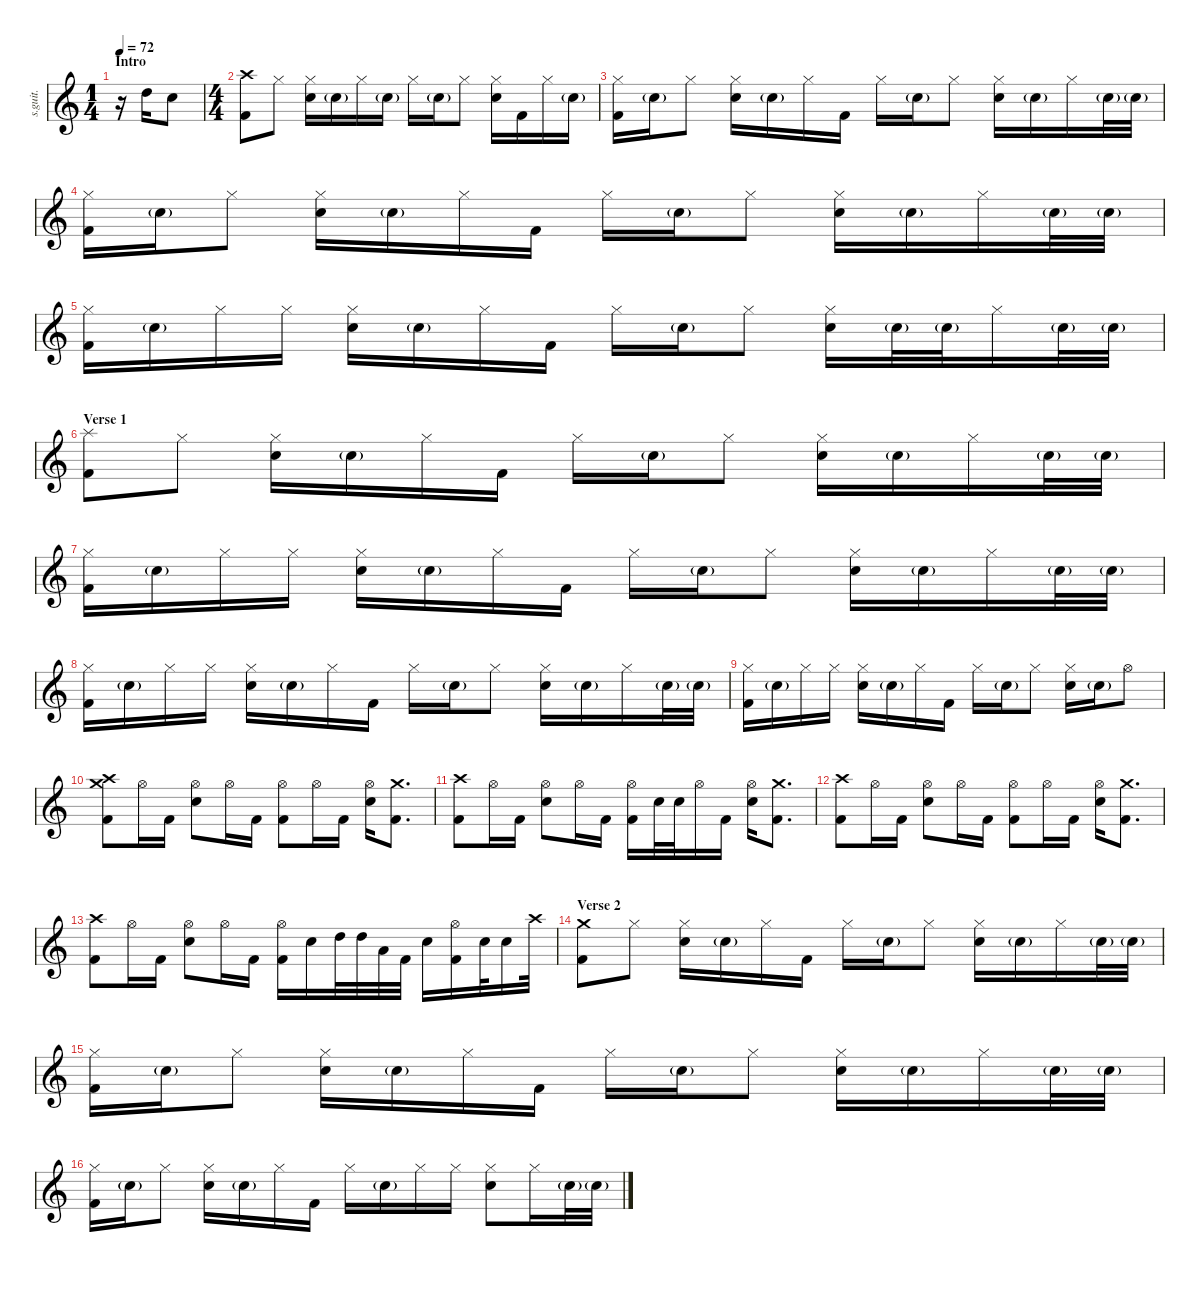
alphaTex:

\defaultSystemsLayout 4
\hideDynamics
\bracketExtendMode nobrackets
\track ("Abe Cunningham" "s.guit.") {instrument percussion}
\staff {score}
\articulation defaults
\ts (1 4)
\beaming (8 2 2 2 2)
\section ("" "Intro")
\tempo 72
\clef g2
\ks c
r.16{dy fff} "High Tom (hit)".16{lyrics (0 "") lyrics (1 "") lyrics (2 "") lyrics (3 "") lyrics (4 "")} "Snare (hit) 2".8{lyrics (0 "") lyrics (1 "") lyrics (2 "") lyrics (3 "") lyrics (4 "")} |
\ts (4 4)
\beaming (8 2 2 2 2)
("Kick (hit) 2" "Crash high (hit)").8{lyrics (0 "") lyrics (1 "") lyrics (2 "") lyrics (3 "") lyrics (4 "")} "Hi-Hat (closed)".8{lyrics (0 "") lyrics (1 "") lyrics (2 "") lyrics (3 "") lyrics (4 "")} ("Hi-Hat (closed)" "Snare (hit) 2").16{lyrics (0 "") lyrics (1 "") lyrics (2 "") lyrics (3 "") lyrics (4 "")} "Snare (hit) 2"{g}.16{lyrics (0 "") lyrics (1 "") lyrics (2 "") lyrics (3 "") lyrics (4 "")} "Hi-Hat (closed)".16{lyrics (0 "") lyrics (1 "") lyrics (2 "") lyrics (3 "") lyrics (4 "")} "Snare (hit) 2"{g}.16{lyrics (0 "") lyrics (1 "") lyrics (2 "") lyrics (3 "") lyrics (4 "")} "Hi-Hat (closed)".16{lyrics (0 "") lyrics (1 "") lyrics (2 "") lyrics (3 "") lyrics (4 "")} "Snare (hit) 2"{g}.16{lyrics (0 "") lyrics (1 "") lyrics (2 "") lyrics (3 "") lyrics (4 "")} "Hi-Hat (closed)".8{lyrics (0 "") lyrics (1 "") lyrics (2 "") lyrics (3 "") lyrics (4 "")} ("Hi-Hat (closed)" "Snare (hit) 2").16{lyrics (0 "") lyrics (1 "") lyrics (2 "") lyrics (3 "") lyrics (4 "")} "Kick (hit) 2".16{lyrics (0 "") lyrics (1 "") lyrics (2 "") lyrics (3 "") lyrics (4 "")} "Hi-Hat (closed)".16{lyrics (0 "") lyrics (1 "") lyrics (2 "") lyrics (3 "") lyrics (4 "")} "Snare (hit) 2"{g}.16{lyrics (0 "") lyrics (1 "") lyrics (2 "") lyrics (3 "") lyrics (4 "")} |
("Kick (hit) 2" "Hi-Hat (closed)").16{lyrics (0 "") lyrics (1 "") lyrics (2 "") lyrics (3 "") lyrics (4 "")} "Snare (hit) 2"{g}.16{lyrics (0 "") lyrics (1 "") lyrics (2 "") lyrics (3 "") lyrics (4 "")} "Hi-Hat (closed)".8{lyrics (0 "") lyrics (1 "") lyrics (2 "") lyrics (3 "") lyrics (4 "")} ("Hi-Hat (closed)" "Snare (hit) 2").16{lyrics (0 "") lyrics (1 "") lyrics (2 "") lyrics (3 "") lyrics (4 "")} "Snare (hit) 2"{g}.16{lyrics (0 "") lyrics (1 "") lyrics (2 "") lyrics (3 "") lyrics (4 "")} "Hi-Hat (closed)".16{lyrics (0 "") lyrics (1 "") lyrics (2 "") lyrics (3 "") lyrics (4 "")} "Kick (hit) 2".16{lyrics (0 "") lyrics (1 "") lyrics (2 "") lyrics (3 "") lyrics (4 "")} "Hi-Hat (closed)".16{lyrics (0 "") lyrics (1 "") lyrics (2 "") lyrics (3 "") lyrics (4 "")} "Snare (hit) 2"{g}.16{lyrics (0 "") lyrics (1 "") lyrics (2 "") lyrics (3 "") lyrics (4 "")} "Hi-Hat (closed)".8{lyrics (0 "") lyrics (1 "") lyrics (2 "") lyrics (3 "") lyrics (4 "")} ("Hi-Hat (closed)" "Snare (hit) 2").16{lyrics (0 "") lyrics (1 "") lyrics (2 "") lyrics (3 "") lyrics (4 "")} "Snare (hit) 2"{g}.16{lyrics (0 "") lyrics (1 "") lyrics (2 "") lyrics (3 "") lyrics (4 "")} "Hi-Hat (closed)".16{lyrics (0 "") lyrics (1 "") lyrics (2 "") lyrics (3 "") lyrics (4 "")} "Snare (hit) 2"{g}.32{lyrics (0 "") lyrics (1 "") lyrics (2 "") lyrics (3 "") lyrics (4 "")} "Snare (hit) 2"{g}.32{lyrics (0 "") lyrics (1 "") lyrics (2 "") lyrics (3 "") lyrics (4 "")} |
("Kick (hit) 2" "Hi-Hat (closed)").16{lyrics (0 "") lyrics (1 "") lyrics (2 "") lyrics (3 "") lyrics (4 "")} "Snare (hit) 2"{g}.16{lyrics (0 "") lyrics (1 "") lyrics (2 "") lyrics (3 "") lyrics (4 "")} "Hi-Hat (closed)".8{lyrics (0 "") lyrics (1 "") lyrics (2 "") lyrics (3 "") lyrics (4 "")} ("Hi-Hat (closed)" "Snare (hit) 2").16{lyrics (0 "") lyrics (1 "") lyrics (2 "") lyrics (3 "") lyrics (4 "")} "Snare (hit) 2"{g}.16{lyrics (0 "") lyrics (1 "") lyrics (2 "") lyrics (3 "") lyrics (4 "")} "Hi-Hat (closed)".16{lyrics (0 "") lyrics (1 "") lyrics (2 "") lyrics (3 "") lyrics (4 "")} "Kick (hit) 2".16{lyrics (0 "") lyrics (1 "") lyrics (2 "") lyrics (3 "") lyrics (4 "")} "Hi-Hat (closed)".16{lyrics (0 "") lyrics (1 "") lyrics (2 "") lyrics (3 "") lyrics (4 "")} "Snare (hit) 2"{g}.16{lyrics (0 "") lyrics (1 "") lyrics (2 "") lyrics (3 "") lyrics (4 "")} "Hi-Hat (closed)".8{lyrics (0 "") lyrics (1 "") lyrics (2 "") lyrics (3 "") lyrics (4 "")} ("Hi-Hat (closed)" "Snare (hit) 2").16{lyrics (0 "") lyrics (1 "") lyrics (2 "") lyrics (3 "") lyrics (4 "")} "Snare (hit) 2"{g}.16{lyrics (0 "") lyrics (1 "") lyrics (2 "") lyrics (3 "") lyrics (4 "")} "Hi-Hat (closed)".16{lyrics (0 "") lyrics (1 "") lyrics (2 "") lyrics (3 "") lyrics (4 "")} "Snare (hit) 2"{g}.32{lyrics (0 "") lyrics (1 "") lyrics (2 "") lyrics (3 "") lyrics (4 "")} "Snare (hit) 2"{g}.32{lyrics (0 "") lyrics (1 "") lyrics (2 "") lyrics (3 "") lyrics (4 "")} |
("Kick (hit) 2" "Hi-Hat (closed)").16{lyrics (0 "") lyrics (1 "") lyrics (2 "") lyrics (3 "") lyrics (4 "")} "Snare (hit) 2"{g}.16{lyrics (0 "") lyrics (1 "") lyrics (2 "") lyrics (3 "") lyrics (4 "")} "Hi-Hat (closed)".16{lyrics (0 "") lyrics (1 "") lyrics (2 "") lyrics (3 "") lyrics (4 "")} "Hi-Hat (closed)".16{lyrics (0 "") lyrics (1 "") lyrics (2 "") lyrics (3 "") lyrics (4 "")} ("Hi-Hat (closed)" "Snare (hit) 2").16{lyrics (0 "") lyrics (1 "") lyrics (2 "") lyrics (3 "") lyrics (4 "")} "Snare (hit) 2"{g}.16{lyrics (0 "") lyrics (1 "") lyrics (2 "") lyrics (3 "") lyrics (4 "")} "Hi-Hat (closed)".16{lyrics (0 "") lyrics (1 "") lyrics (2 "") lyrics (3 "") lyrics (4 "")} "Kick (hit) 2".16{lyrics (0 "") lyrics (1 "") lyrics (2 "") lyrics (3 "") lyrics (4 "")} "Hi-Hat (closed)".16{lyrics (0 "") lyrics (1 "") lyrics (2 "") lyrics (3 "") lyrics (4 "")} "Snare (hit) 2"{g}.16{lyrics (0 "") lyrics (1 "") lyrics (2 "") lyrics (3 "") lyrics (4 "")} "Hi-Hat (closed)".8{lyrics (0 "") lyrics (1 "") lyrics (2 "") lyrics (3 "") lyrics (4 "")} ("Hi-Hat (closed)" "Snare (hit) 2").16{lyrics (0 "") lyrics (1 "") lyrics (2 "") lyrics (3 "") lyrics (4 "")} "Snare (hit) 2"{g}.32{lyrics (0 "") lyrics (1 "") lyrics (2 "") lyrics (3 "") lyrics (4 "")} "Snare (hit) 2"{g}.32{lyrics (0 "") lyrics (1 "") lyrics (2 "") lyrics (3 "") lyrics (4 "")} "Hi-Hat (closed)".16{lyrics (0 "") lyrics (1 "") lyrics (2 "") lyrics (3 "") lyrics (4 "")} "Snare (hit) 2"{g}.32{lyrics (0 "") lyrics (1 "") lyrics (2 "") lyrics (3 "") lyrics (4 "")} "Snare (hit) 2"{g}.32{lyrics (0 "") lyrics (1 "") lyrics (2 "") lyrics (3 "") lyrics (4 "")} |
\section ("" "Verse 1")
("Kick (hit) 2" "Splash (hit)").8{lyrics (0 "") lyrics (1 "") lyrics (2 "") lyrics (3 "") lyrics (4 "")} "Hi-Hat (closed)".8{lyrics (0 "") lyrics (1 "") lyrics (2 "") lyrics (3 "") lyrics (4 "")} ("Hi-Hat (closed)" "Snare (hit) 2").16{lyrics (0 "") lyrics (1 "") lyrics (2 "") lyrics (3 "") lyrics (4 "")} "Snare (hit) 2"{g}.16{lyrics (0 "") lyrics (1 "") lyrics (2 "") lyrics (3 "") lyrics (4 "")} "Hi-Hat (closed)".16{lyrics (0 "") lyrics (1 "") lyrics (2 "") lyrics (3 "") lyrics (4 "")} "Kick (hit) 2".16{lyrics (0 "") lyrics (1 "") lyrics (2 "") lyrics (3 "") lyrics (4 "")} "Hi-Hat (closed)".16{lyrics (0 "") lyrics (1 "") lyrics (2 "") lyrics (3 "") lyrics (4 "")} "Snare (hit) 2"{g}.16{lyrics (0 "") lyrics (1 "") lyrics (2 "") lyrics (3 "") lyrics (4 "")} "Hi-Hat (closed)".8{lyrics (0 "") lyrics (1 "") lyrics (2 "") lyrics (3 "") lyrics (4 "")} ("Hi-Hat (closed)" "Snare (hit) 2").16{lyrics (0 "") lyrics (1 "") lyrics (2 "") lyrics (3 "") lyrics (4 "")} "Snare (hit) 2"{g}.16{lyrics (0 "") lyrics (1 "") lyrics (2 "") lyrics (3 "") lyrics (4 "")} "Hi-Hat (closed)".16{lyrics (0 "") lyrics (1 "") lyrics (2 "") lyrics (3 "") lyrics (4 "")} "Snare (hit) 2"{g}.32{lyrics (0 "") lyrics (1 "") lyrics (2 "") lyrics (3 "") lyrics (4 "")} "Snare (hit) 2"{g}.32{lyrics (0 "") lyrics (1 "") lyrics (2 "") lyrics (3 "") lyrics (4 "")} |
("Kick (hit) 2" "Hi-Hat (closed)").16{lyrics (0 "") lyrics (1 "") lyrics (2 "") lyrics (3 "") lyrics (4 "")} "Snare (hit) 2"{g}.16{lyrics (0 "") lyrics (1 "") lyrics (2 "") lyrics (3 "") lyrics (4 "")} "Hi-Hat (closed)".16{lyrics (0 "") lyrics (1 "") lyrics (2 "") lyrics (3 "") lyrics (4 "")} "Hi-Hat (closed)".16{lyrics (0 "") lyrics (1 "") lyrics (2 "") lyrics (3 "") lyrics (4 "")} ("Hi-Hat (closed)" "Snare (hit) 2").16{lyrics (0 "") lyrics (1 "") lyrics (2 "") lyrics (3 "") lyrics (4 "")} "Snare (hit) 2"{g}.16{lyrics (0 "") lyrics (1 "") lyrics (2 "") lyrics (3 "") lyrics (4 "")} "Hi-Hat (closed)".16{lyrics (0 "") lyrics (1 "") lyrics (2 "") lyrics (3 "") lyrics (4 "")} "Kick (hit) 2".16{lyrics (0 "") lyrics (1 "") lyrics (2 "") lyrics (3 "") lyrics (4 "")} "Hi-Hat (closed)".16{lyrics (0 "") lyrics (1 "") lyrics (2 "") lyrics (3 "") lyrics (4 "")} "Snare (hit) 2"{g}.16{lyrics (0 "") lyrics (1 "") lyrics (2 "") lyrics (3 "") lyrics (4 "")} "Hi-Hat (closed)".8{lyrics (0 "") lyrics (1 "") lyrics (2 "") lyrics (3 "") lyrics (4 "")} ("Hi-Hat (closed)" "Snare (hit) 2").16{lyrics (0 "") lyrics (1 "") lyrics (2 "") lyrics (3 "") lyrics (4 "")} "Snare (hit) 2"{g}.16{lyrics (0 "") lyrics (1 "") lyrics (2 "") lyrics (3 "") lyrics (4 "")} "Hi-Hat (closed)".16{lyrics (0 "") lyrics (1 "") lyrics (2 "") lyrics (3 "") lyrics (4 "")} "Snare (hit) 2"{g}.32{lyrics (0 "") lyrics (1 "") lyrics (2 "") lyrics (3 "") lyrics (4 "")} "Snare (hit) 2"{g}.32{lyrics (0 "") lyrics (1 "") lyrics (2 "") lyrics (3 "") lyrics (4 "")} |
("Kick (hit) 2" "Hi-Hat (closed)").16{lyrics (0 "") lyrics (1 "") lyrics (2 "") lyrics (3 "") lyrics (4 "")} "Snare (hit) 2"{g}.16{lyrics (0 "") lyrics (1 "") lyrics (2 "") lyrics (3 "") lyrics (4 "")} "Hi-Hat (closed)".16{lyrics (0 "") lyrics (1 "") lyrics (2 "") lyrics (3 "") lyrics (4 "")} "Hi-Hat (closed)".16{lyrics (0 "") lyrics (1 "") lyrics (2 "") lyrics (3 "") lyrics (4 "")} ("Hi-Hat (closed)" "Snare (hit) 2").16{lyrics (0 "") lyrics (1 "") lyrics (2 "") lyrics (3 "") lyrics (4 "")} "Snare (hit) 2"{g}.16{lyrics (0 "") lyrics (1 "") lyrics (2 "") lyrics (3 "") lyrics (4 "")} "Hi-Hat (closed)".16{lyrics (0 "") lyrics (1 "") lyrics (2 "") lyrics (3 "") lyrics (4 "")} "Kick (hit) 2".16{lyrics (0 "") lyrics (1 "") lyrics (2 "") lyrics (3 "") lyrics (4 "")} "Hi-Hat (closed)".16{lyrics (0 "") lyrics (1 "") lyrics (2 "") lyrics (3 "") lyrics (4 "")} "Snare (hit) 2"{g}.16{lyrics (0 "") lyrics (1 "") lyrics (2 "") lyrics (3 "") lyrics (4 "")} "Hi-Hat (closed)".8{lyrics (0 "") lyrics (1 "") lyrics (2 "") lyrics (3 "") lyrics (4 "")} ("Hi-Hat (closed)" "Snare (hit) 2").16{lyrics (0 "") lyrics (1 "") lyrics (2 "") lyrics (3 "") lyrics (4 "")} "Snare (hit) 2"{g}.16{lyrics (0 "") lyrics (1 "") lyrics (2 "") lyrics (3 "") lyrics (4 "")} "Hi-Hat (closed)".16{lyrics (0 "") lyrics (1 "") lyrics (2 "") lyrics (3 "") lyrics (4 "")} "Snare (hit) 2"{g}.32{lyrics (0 "") lyrics (1 "") lyrics (2 "") lyrics (3 "") lyrics (4 "")} "Snare (hit) 2"{g}.32{lyrics (0 "") lyrics (1 "") lyrics (2 "") lyrics (3 "") lyrics (4 "")} |
("Kick (hit) 2" "Hi-Hat (closed)").16{lyrics (0 "") lyrics (1 "") lyrics (2 "") lyrics (3 "") lyrics (4 "")} "Snare (hit) 2"{g}.16{lyrics (0 "") lyrics (1 "") lyrics (2 "") lyrics (3 "") lyrics (4 "")} "Hi-Hat (closed)".16{lyrics (0 "") lyrics (1 "") lyrics (2 "") lyrics (3 "") lyrics (4 "")} "Hi-Hat (closed)".16{lyrics (0 "") lyrics (1 "") lyrics (2 "") lyrics (3 "") lyrics (4 "")} ("Hi-Hat (closed)" "Snare (hit) 2").16{lyrics (0 "") lyrics (1 "") lyrics (2 "") lyrics (3 "") lyrics (4 "")} "Snare (hit) 2"{g}.16{lyrics (0 "") lyrics (1 "") lyrics (2 "") lyrics (3 "") lyrics (4 "")} "Hi-Hat (closed)".16{lyrics (0 "") lyrics (1 "") lyrics (2 "") lyrics (3 "") lyrics (4 "")} "Kick (hit) 2".16{lyrics (0 "") lyrics (1 "") lyrics (2 "") lyrics (3 "") lyrics (4 "")} "Hi-Hat (closed)".16{lyrics (0 "") lyrics (1 "") lyrics (2 "") lyrics (3 "") lyrics (4 "")} "Snare (hit) 2"{g}.16{lyrics (0 "") lyrics (1 "") lyrics (2 "") lyrics (3 "") lyrics (4 "")} "Hi-Hat (closed)".8{lyrics (0 "") lyrics (1 "") lyrics (2 "") lyrics (3 "") lyrics (4 "")} ("Hi-Hat (closed)" "Snare (hit) 2").16{lyrics (0 "") lyrics (1 "") lyrics (2 "") lyrics (3 "") lyrics (4 "")} "Snare (hit) 2"{g}.16{lyrics (0 "") lyrics (1 "") lyrics (2 "") lyrics (3 "") lyrics (4 "")} "Hi-Hat (open)".8{lyrics (0 "") lyrics (1 "") lyrics (2 "") lyrics (3 "") lyrics (4 "")} |
("Crash high (hit)" "Kick (hit) 2" "Crash medium (hit)").8{lyrics (0 "") lyrics (1 "") lyrics (2 "") lyrics (3 "") lyrics (4 "")} "Hi-Hat (open)".16{lyrics (0 "") lyrics (1 "") lyrics (2 "") lyrics (3 "") lyrics (4 "")} "Kick (hit) 2".16{lyrics (0 "") lyrics (1 "") lyrics (2 "") lyrics (3 "") lyrics (4 "")} ("Hi-Hat (open)" "Snare (hit) 2").8{lyrics (0 "") lyrics (1 "") lyrics (2 "") lyrics (3 "") lyrics (4 "")} "Hi-Hat (open)".16{lyrics (0 "") lyrics (1 "") lyrics (2 "") lyrics (3 "") lyrics (4 "")} "Kick (hit) 2".16{lyrics (0 "") lyrics (1 "") lyrics (2 "") lyrics (3 "") lyrics (4 "")} ("Hi-Hat (open)" "Kick (hit) 2").8{lyrics (0 "") lyrics (1 "") lyrics (2 "") lyrics (3 "") lyrics (4 "")} "Hi-Hat (open)".16{lyrics (0 "") lyrics (1 "") lyrics (2 "") lyrics (3 "") lyrics (4 "")} "Kick (hit) 2".16{lyrics (0 "") lyrics (1 "") lyrics (2 "") lyrics (3 "") lyrics (4 "")} ("Hi-Hat (open)" "Snare (hit) 2").16{lyrics (0 "") lyrics (1 "") lyrics (2 "") lyrics (3 "") lyrics (4 "")} ("Kick (hit) 2" "Crash medium (hit)").8{d lyrics (0 "") lyrics (1 "") lyrics (2 "") lyrics (3 "") lyrics (4 "")} |
("Kick (hit) 2" "Crash high (hit)").8{lyrics (0 "") lyrics (1 "") lyrics (2 "") lyrics (3 "") lyrics (4 "")} "Hi-Hat (open)".16{lyrics (0 "") lyrics (1 "") lyrics (2 "") lyrics (3 "") lyrics (4 "")} "Kick (hit) 2".16{lyrics (0 "") lyrics (1 "") lyrics (2 "") lyrics (3 "") lyrics (4 "")} ("Hi-Hat (open)" "Snare (hit) 2").8{lyrics (0 "") lyrics (1 "") lyrics (2 "") lyrics (3 "") lyrics (4 "")} "Hi-Hat (open)".16{lyrics (0 "") lyrics (1 "") lyrics (2 "") lyrics (3 "") lyrics (4 "")} "Kick (hit) 2".16{lyrics (0 "") lyrics (1 "") lyrics (2 "") lyrics (3 "") lyrics (4 "")} ("Hi-Hat (open)" "Kick (hit) 2").16{lyrics (0 "") lyrics (1 "") lyrics (2 "") lyrics (3 "") lyrics (4 "")} "Snare (hit) 2".32{lyrics (0 "") lyrics (1 "") lyrics (2 "") lyrics (3 "") lyrics (4 "")} "Snare (hit) 2".32{lyrics (0 "") lyrics (1 "") lyrics (2 "") lyrics (3 "") lyrics (4 "")} "Hi-Hat (open)".16{lyrics (0 "") lyrics (1 "") lyrics (2 "") lyrics (3 "") lyrics (4 "")} "Kick (hit) 2".16{lyrics (0 "") lyrics (1 "") lyrics (2 "") lyrics (3 "") lyrics (4 "")} ("Hi-Hat (open)" "Snare (hit) 2").16{lyrics (0 "") lyrics (1 "") lyrics (2 "") lyrics (3 "") lyrics (4 "")} ("Kick (hit) 2" "Crash medium (hit)").8{d lyrics (0 "") lyrics (1 "") lyrics (2 "") lyrics (3 "") lyrics (4 "")} |
("Kick (hit) 2" "Crash high (hit)").8{lyrics (0 "") lyrics (1 "") lyrics (2 "") lyrics (3 "") lyrics (4 "")} "Hi-Hat (open)".16{lyrics (0 "") lyrics (1 "") lyrics (2 "") lyrics (3 "") lyrics (4 "")} "Kick (hit) 2".16{lyrics (0 "") lyrics (1 "") lyrics (2 "") lyrics (3 "") lyrics (4 "")} ("Hi-Hat (open)" "Snare (hit) 2").8{lyrics (0 "") lyrics (1 "") lyrics (2 "") lyrics (3 "") lyrics (4 "")} "Hi-Hat (open)".16{lyrics (0 "") lyrics (1 "") lyrics (2 "") lyrics (3 "") lyrics (4 "")} "Kick (hit) 2".16{lyrics (0 "") lyrics (1 "") lyrics (2 "") lyrics (3 "") lyrics (4 "")} ("Hi-Hat (open)" "Kick (hit) 2").8{lyrics (0 "") lyrics (1 "") lyrics (2 "") lyrics (3 "") lyrics (4 "")} "Hi-Hat (open)".16{lyrics (0 "") lyrics (1 "") lyrics (2 "") lyrics (3 "") lyrics (4 "")} "Kick (hit) 2".16{lyrics (0 "") lyrics (1 "") lyrics (2 "") lyrics (3 "") lyrics (4 "")} ("Hi-Hat (open)" "Snare (hit) 2").16{lyrics (0 "") lyrics (1 "") lyrics (2 "") lyrics (3 "") lyrics (4 "")} ("Kick (hit) 2" "Crash medium (hit)").8{d lyrics (0 "") lyrics (1 "") lyrics (2 "") lyrics (3 "") lyrics (4 "")} |
("Kick (hit) 2" "Crash high (hit)").8{lyrics (0 "") lyrics (1 "") lyrics (2 "") lyrics (3 "") lyrics (4 "")} "Hi-Hat (open)".16{lyrics (0 "") lyrics (1 "") lyrics (2 "") lyrics (3 "") lyrics (4 "")} "Kick (hit) 2".16{lyrics (0 "") lyrics (1 "") lyrics (2 "") lyrics (3 "") lyrics (4 "")} ("Hi-Hat (open)" "Snare (hit) 2").8{lyrics (0 "") lyrics (1 "") lyrics (2 "") lyrics (3 "") lyrics (4 "")} "Hi-Hat (open)".16{lyrics (0 "") lyrics (1 "") lyrics (2 "") lyrics (3 "") lyrics (4 "")} "Kick (hit) 2".16{lyrics (0 "") lyrics (1 "") lyrics (2 "") lyrics (3 "") lyrics (4 "")} ("Hi-Hat (open)" "Kick (hit) 2").16{lyrics (0 "") lyrics (1 "") lyrics (2 "") lyrics (3 "") lyrics (4 "")} "Snare (hit) 2".16{lyrics (0 "") lyrics (1 "") lyrics (2 "") lyrics (3 "") lyrics (4 "")} "High Tom (hit)".32{lyrics (0 "") lyrics (1 "") lyrics (2 "") lyrics (3 "") lyrics (4 "")} "High Tom (hit)".32{lyrics (0 "") lyrics (1 "") lyrics (2 "") lyrics (3 "") lyrics (4 "")} "Low Floor Tom (hit)".32{lyrics (0 "") lyrics (1 "") lyrics (2 "") lyrics (3 "") lyrics (4 "")} "Kick (hit) 2".32{lyrics (0 "") lyrics (1 "") lyrics (2 "") lyrics (3 "") lyrics (4 "")} "Snare (hit) 2".16{lyrics (0 "") lyrics (1 "") lyrics (2 "") lyrics (3 "") lyrics (4 "")} ("Kick (hit) 2" "Hi-Hat (open)").16{lyrics (0 "") lyrics (1 "") lyrics (2 "") lyrics (3 "") lyrics (4 "")} "Snare (hit) 2".32{lyrics (0 "") lyrics (1 "") lyrics (2 "") lyrics (3 "") lyrics (4 "")} "Snare (hit) 2".16{lyrics (0 "") lyrics (1 "") lyrics (2 "") lyrics (3 "") lyrics (4 "")} "Crash high (hit)".32{lyrics (0 "") lyrics (1 "") lyrics (2 "") lyrics (3 "") lyrics (4 "")} |
\section ("" "Verse 2")
("Kick (hit) 2" "Crash medium (hit)").8{lyrics (0 "") lyrics (1 "") lyrics (2 "") lyrics (3 "") lyrics (4 "")} "Hi-Hat (closed)".8{lyrics (0 "") lyrics (1 "") lyrics (2 "") lyrics (3 "") lyrics (4 "")} ("Hi-Hat (closed)" "Snare (hit) 2").16{lyrics (0 "") lyrics (1 "") lyrics (2 "") lyrics (3 "") lyrics (4 "")} "Snare (hit) 2"{g}.16{lyrics (0 "") lyrics (1 "") lyrics (2 "") lyrics (3 "") lyrics (4 "")} "Hi-Hat (closed)".16{lyrics (0 "") lyrics (1 "") lyrics (2 "") lyrics (3 "") lyrics (4 "")} "Kick (hit) 2".16{lyrics (0 "") lyrics (1 "") lyrics (2 "") lyrics (3 "") lyrics (4 "")} "Hi-Hat (closed)".16{lyrics (0 "") lyrics (1 "") lyrics (2 "") lyrics (3 "") lyrics (4 "")} "Snare (hit) 2"{g}.16{lyrics (0 "") lyrics (1 "") lyrics (2 "") lyrics (3 "") lyrics (4 "")} "Hi-Hat (closed)".8{lyrics (0 "") lyrics (1 "") lyrics (2 "") lyrics (3 "") lyrics (4 "")} ("Hi-Hat (closed)" "Snare (hit) 2").16{lyrics (0 "") lyrics (1 "") lyrics (2 "") lyrics (3 "") lyrics (4 "")} "Snare (hit) 2"{g}.16{lyrics (0 "") lyrics (1 "") lyrics (2 "") lyrics (3 "") lyrics (4 "")} "Hi-Hat (closed)".16{lyrics (0 "") lyrics (1 "") lyrics (2 "") lyrics (3 "") lyrics (4 "")} "Snare (hit) 2"{g}.32{lyrics (0 "") lyrics (1 "") lyrics (2 "") lyrics (3 "") lyrics (4 "")} "Snare (hit) 2"{g}.32{lyrics (0 "") lyrics (1 "") lyrics (2 "") lyrics (3 "") lyrics (4 "")} |
("Kick (hit) 2" "Hi-Hat (closed)").16{lyrics (0 "") lyrics (1 "") lyrics (2 "") lyrics (3 "") lyrics (4 "")} "Snare (hit) 2"{g}.16{lyrics (0 "") lyrics (1 "") lyrics (2 "") lyrics (3 "") lyrics (4 "")} "Hi-Hat (closed)".8{lyrics (0 "") lyrics (1 "") lyrics (2 "") lyrics (3 "") lyrics (4 "")} ("Hi-Hat (closed)" "Snare (hit) 2").16{lyrics (0 "") lyrics (1 "") lyrics (2 "") lyrics (3 "") lyrics (4 "")} "Snare (hit) 2"{g}.16{lyrics (0 "") lyrics (1 "") lyrics (2 "") lyrics (3 "") lyrics (4 "")} "Hi-Hat (closed)".16{lyrics (0 "") lyrics (1 "") lyrics (2 "") lyrics (3 "") lyrics (4 "")} "Kick (hit) 2".16{lyrics (0 "") lyrics (1 "") lyrics (2 "") lyrics (3 "") lyrics (4 "")} "Hi-Hat (closed)".16{lyrics (0 "") lyrics (1 "") lyrics (2 "") lyrics (3 "") lyrics (4 "")} "Snare (hit) 2"{g}.16{lyrics (0 "") lyrics (1 "") lyrics (2 "") lyrics (3 "") lyrics (4 "")} "Hi-Hat (closed)".8{lyrics (0 "") lyrics (1 "") lyrics (2 "") lyrics (3 "") lyrics (4 "")} ("Hi-Hat (closed)" "Snare (hit) 2").16{lyrics (0 "") lyrics (1 "") lyrics (2 "") lyrics (3 "") lyrics (4 "")} "Snare (hit) 2"{g}.16{lyrics (0 "") lyrics (1 "") lyrics (2 "") lyrics (3 "") lyrics (4 "")} "Hi-Hat (closed)".16{lyrics (0 "") lyrics (1 "") lyrics (2 "") lyrics (3 "") lyrics (4 "")} "Snare (hit) 2"{g}.32{lyrics (0 "") lyrics (1 "") lyrics (2 "") lyrics (3 "") lyrics (4 "")} "Snare (hit) 2"{g}.32{lyrics (0 "") lyrics (1 "") lyrics (2 "") lyrics (3 "") lyrics (4 "")} |
("Kick (hit) 2" "Hi-Hat (closed)").16{lyrics (0 "") lyrics (1 "") lyrics (2 "") lyrics (3 "") lyrics (4 "")} "Snare (hit) 2"{g}.16{lyrics (0 "") lyrics (1 "") lyrics (2 "") lyrics (3 "") lyrics (4 "")} "Hi-Hat (closed)".8{lyrics (0 "") lyrics (1 "") lyrics (2 "") lyrics (3 "") lyrics (4 "")} ("Hi-Hat (closed)" "Snare (hit) 2").16{lyrics (0 "") lyrics (1 "") lyrics (2 "") lyrics (3 "") lyrics (4 "")} "Snare (hit) 2"{g}.16{lyrics (0 "") lyrics (1 "") lyrics (2 "") lyrics (3 "") lyrics (4 "")} "Hi-Hat (closed)".16{lyrics (0 "") lyrics (1 "") lyrics (2 "") lyrics (3 "") lyrics (4 "")} "Kick (hit) 2".16{lyrics (0 "") lyrics (1 "") lyrics (2 "") lyrics (3 "") lyrics (4 "")} "Hi-Hat (closed)".16{lyrics (0 "") lyrics (1 "") lyrics (2 "") lyrics (3 "") lyrics (4 "")} "Snare (hit) 2"{g}.16{lyrics (0 "") lyrics (1 "") lyrics (2 "") lyrics (3 "") lyrics (4 "")} "Hi-Hat (closed)".16{lyrics (0 "") lyrics (1 "") lyrics (2 "") lyrics (3 "") lyrics (4 "")} "Hi-Hat (closed)".16{lyrics (0 "") lyrics (1 "") lyrics (2 "") lyrics (3 "") lyrics (4 "")} ("Hi-Hat (closed)" "Snare (hit) 2").8{lyrics (0 "") lyrics (1 "") lyrics (2 "") lyrics (3 "") lyrics (4 "")} "Hi-Hat (closed)".16{lyrics (0 "") lyrics (1 "") lyrics (2 "") lyrics (3 "") lyrics (4 "")} "Snare (hit) 2"{g}.32{lyrics (0 "") lyrics (1 "") lyrics (2 "") lyrics (3 "") lyrics (4 "")} "Snare (hit) 2"{g}.32{lyrics (0 "") lyrics (1 "") lyrics (2 "") lyrics (3 "") lyrics (4 "")}
